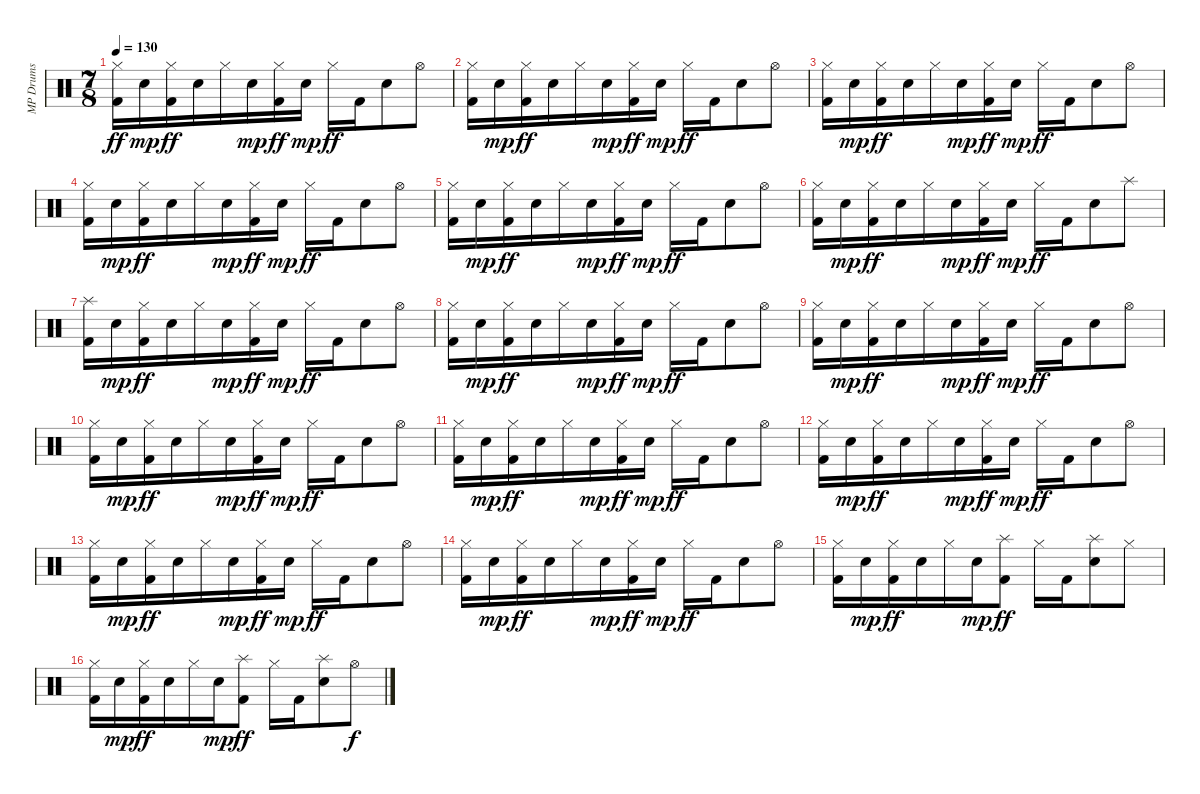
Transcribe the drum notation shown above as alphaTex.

\track ("MP Drums" "MP Drums") {instrument percussion}
\staff {score}
\articulation defaults
\ts (7 8)
\tempo 130
\clef neutral
\ks c
("Hi-Hat (closed)" "Kick (hit) 2").16{dy ff} "Snare (hit) 2".16{dy mp} ("Hi-Hat (closed)" "Kick (hit) 2").16{dy ff} "Snare (hit) 2".16 "Hi-Hat (closed)".16 "Snare (hit) 2".16{dy mp} ("Hi-Hat (closed)" "Kick (hit) 2").16{dy ff} "Snare (hit) 2".16{dy mp} "Hi-Hat (closed)".16{dy ff} "Kick (hit) 2".16 "Snare (hit) 2".8 "Hi-Hat (open)".8 |
("Hi-Hat (closed)" "Kick (hit) 2").16 "Snare (hit) 2".16{dy mp} ("Hi-Hat (closed)" "Kick (hit) 2").16{dy ff} "Snare (hit) 2".16 "Hi-Hat (closed)".16 "Snare (hit) 2".16{dy mp} ("Hi-Hat (closed)" "Kick (hit) 2").16{dy ff} "Snare (hit) 2".16{dy mp} "Hi-Hat (closed)".16{dy ff} "Kick (hit) 2".16 "Snare (hit) 2".8 "Hi-Hat (open)".8 |
("Hi-Hat (closed)" "Kick (hit) 2").16 "Snare (hit) 2".16{dy mp} ("Hi-Hat (closed)" "Kick (hit) 2").16{dy ff} "Snare (hit) 2".16 "Hi-Hat (closed)".16 "Snare (hit) 2".16{dy mp} ("Hi-Hat (closed)" "Kick (hit) 2").16{dy ff} "Snare (hit) 2".16{dy mp} "Hi-Hat (closed)".16{dy ff} "Kick (hit) 2".16 "Snare (hit) 2".8 "Hi-Hat (open)".8 |
("Hi-Hat (closed)" "Kick (hit) 2").16 "Snare (hit) 2".16{dy mp} ("Hi-Hat (closed)" "Kick (hit) 2").16{dy ff} "Snare (hit) 2".16 "Hi-Hat (closed)".16 "Snare (hit) 2".16{dy mp} ("Hi-Hat (closed)" "Kick (hit) 2").16{dy ff} "Snare (hit) 2".16{dy mp} "Hi-Hat (closed)".16{dy ff} "Kick (hit) 2".16 "Snare (hit) 2".8 "Hi-Hat (open)".8 |
("Hi-Hat (closed)" "Kick (hit) 2").16 "Snare (hit) 2".16{dy mp} ("Hi-Hat (closed)" "Kick (hit) 2").16{dy ff} "Snare (hit) 2".16 "Hi-Hat (closed)".16 "Snare (hit) 2".16{dy mp} ("Hi-Hat (closed)" "Kick (hit) 2").16{dy ff} "Snare (hit) 2".16{dy mp} "Hi-Hat (closed)".16{dy ff} "Kick (hit) 2".16 "Snare (hit) 2".8 "Hi-Hat (open)".8 |
("Hi-Hat (closed)" "Kick (hit) 2").16 "Snare (hit) 2".16{dy mp} ("Hi-Hat (closed)" "Kick (hit) 2").16{dy ff} "Snare (hit) 2".16 "Hi-Hat (closed)".16 "Snare (hit) 2".16{dy mp} ("Hi-Hat (closed)" "Kick (hit) 2").16{dy ff} "Snare (hit) 2".16{dy mp} "Hi-Hat (closed)".16{dy ff} "Kick (hit) 2".16 "Snare (hit) 2".8 "Splash (hit)".8 |
("Splash (hit)" "Kick (hit) 2").16 "Snare (hit) 2".16{dy mp} ("Hi-Hat (closed)" "Kick (hit) 2").16{dy ff} "Snare (hit) 2".16 "Hi-Hat (closed)".16 "Snare (hit) 2".16{dy mp} ("Hi-Hat (closed)" "Kick (hit) 2").16{dy ff} "Snare (hit) 2".16{dy mp} "Hi-Hat (closed)".16{dy ff} "Kick (hit) 2".16 "Snare (hit) 2".8 "Hi-Hat (open)".8 |
("Hi-Hat (closed)" "Kick (hit) 2").16 "Snare (hit) 2".16{dy mp} ("Hi-Hat (closed)" "Kick (hit) 2").16{dy ff} "Snare (hit) 2".16 "Hi-Hat (closed)".16 "Snare (hit) 2".16{dy mp} ("Hi-Hat (closed)" "Kick (hit) 2").16{dy ff} "Snare (hit) 2".16{dy mp} "Hi-Hat (closed)".16{dy ff} "Kick (hit) 2".16 "Snare (hit) 2".8 "Hi-Hat (open)".8 |
("Hi-Hat (closed)" "Kick (hit) 2").16 "Snare (hit) 2".16{dy mp} ("Hi-Hat (closed)" "Kick (hit) 2").16{dy ff} "Snare (hit) 2".16 "Hi-Hat (closed)".16 "Snare (hit) 2".16{dy mp} ("Hi-Hat (closed)" "Kick (hit) 2").16{dy ff} "Snare (hit) 2".16{dy mp} "Hi-Hat (closed)".16{dy ff} "Kick (hit) 2".16 "Snare (hit) 2".8 "Hi-Hat (open)".8 |
("Hi-Hat (closed)" "Kick (hit) 2").16 "Snare (hit) 2".16{dy mp} ("Hi-Hat (closed)" "Kick (hit) 2").16{dy ff} "Snare (hit) 2".16 "Hi-Hat (closed)".16 "Snare (hit) 2".16{dy mp} ("Hi-Hat (closed)" "Kick (hit) 2").16{dy ff} "Snare (hit) 2".16{dy mp} "Hi-Hat (closed)".16{dy ff} "Kick (hit) 2".16 "Snare (hit) 2".8 "Hi-Hat (open)".8 |
("Hi-Hat (closed)" "Kick (hit) 2").16 "Snare (hit) 2".16{dy mp} ("Hi-Hat (closed)" "Kick (hit) 2").16{dy ff} "Snare (hit) 2".16 "Hi-Hat (closed)".16 "Snare (hit) 2".16{dy mp} ("Hi-Hat (closed)" "Kick (hit) 2").16{dy ff} "Snare (hit) 2".16{dy mp} "Hi-Hat (closed)".16{dy ff} "Kick (hit) 2".16 "Snare (hit) 2".8 "Hi-Hat (open)".8 |
("Hi-Hat (closed)" "Kick (hit) 2").16 "Snare (hit) 2".16{dy mp} ("Hi-Hat (closed)" "Kick (hit) 2").16{dy ff} "Snare (hit) 2".16 "Hi-Hat (closed)".16 "Snare (hit) 2".16{dy mp} ("Hi-Hat (closed)" "Kick (hit) 2").16{dy ff} "Snare (hit) 2".16{dy mp} "Hi-Hat (closed)".16{dy ff} "Kick (hit) 2".16 "Snare (hit) 2".8 "Hi-Hat (open)".8 |
("Hi-Hat (closed)" "Kick (hit) 2").16 "Snare (hit) 2".16{dy mp} ("Hi-Hat (closed)" "Kick (hit) 2").16{dy ff} "Snare (hit) 2".16 "Hi-Hat (closed)".16 "Snare (hit) 2".16{dy mp} ("Hi-Hat (closed)" "Kick (hit) 2").16{dy ff} "Snare (hit) 2".16{dy mp} "Hi-Hat (closed)".16{dy ff} "Kick (hit) 2".16 "Snare (hit) 2".8 "Hi-Hat (open)".8 |
("Hi-Hat (closed)" "Kick (hit) 2").16 "Snare (hit) 2".16{dy mp} ("Hi-Hat (closed)" "Kick (hit) 2").16{dy ff} "Snare (hit) 2".16 "Hi-Hat (closed)".16 "Snare (hit) 2".16{dy mp} ("Hi-Hat (closed)" "Kick (hit) 2").16{dy ff} "Snare (hit) 2".16{dy mp} "Hi-Hat (closed)".16{dy ff} "Kick (hit) 2".16 "Snare (hit) 2".8 "Hi-Hat (open)".8 |
("Hi-Hat (closed)" "Kick (hit) 2").16 "Snare (hit) 2".16{dy mp} ("Hi-Hat (closed)" "Kick (hit) 2").16{dy ff} "Snare (hit) 2".16 "Hi-Hat (closed)".16 "Snare (hit) 2".16{dy mp} ("Splash (hit)" "Kick (hit) 2").8{dy ff} "Hi-Hat (closed)".16 "Kick (hit) 2".16 ("Splash (hit)" "Snare (hit) 2").8 "Hi-Hat (closed)".8 |
("Hi-Hat (closed)" "Kick (hit) 2").16 "Snare (hit) 2".16{dy mp} ("Hi-Hat (closed)" "Kick (hit) 2").16{dy ff} "Snare (hit) 2".16 "Hi-Hat (closed)".16 "Snare (hit) 2".16{dy mp} ("Splash (hit)" "Kick (hit) 2").8{dy ff} "Hi-Hat (closed)".16 "Kick (hit) 2".16 ("Splash (hit)" "Snare (hit) 2").8 "Hi-Hat (open)".8{dy f}
